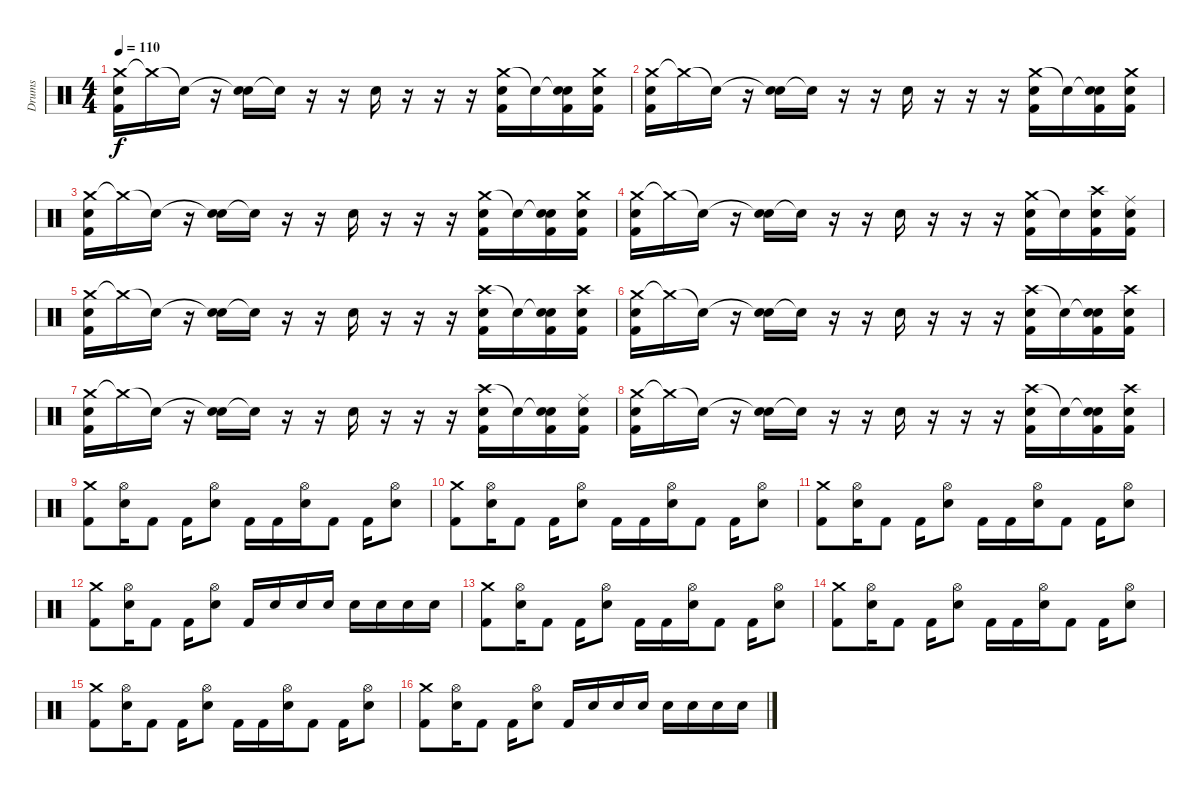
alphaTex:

\track ("Drums" "Drums") {instrument percussion}
\staff {score}
\articulation defaults
\ts (4 4)
\tempo 110
\clef neutral
\ks c
("Crash medium (hit)" "Snare (hit) 2" "Kick (hit) 2").16{dy f volume 13} "Crash medium (hit)"{t}.16 "Snare (hit)"{t}.16 r.16 ("Snare (hit)"{t} "Snare (hit) 2").16 "Snare (hit)"{t}.16 r.16 r.16 "Snare (hit) 2".16 r.16 r.16 r.16 ("Crash medium (hit)" "Snare (hit) 2" "Kick (hit) 2").16 "Snare (hit)"{t}.16 ("Snare (hit)"{t} "Snare (hit) 2" "Kick (hit) 2").16 ("Crash medium (hit)" "Snare (hit) 2" "Kick (hit) 2").16 |
("Crash medium (hit)" "Snare (hit) 2" "Kick (hit) 2").16 "Crash medium (hit)"{t}.16 "Snare (hit)"{t}.16 r.16 ("Snare (hit)"{t} "Snare (hit) 2").16 "Snare (hit)"{t}.16 r.16 r.16 "Snare (hit) 2".16 r.16 r.16 r.16 ("Crash medium (hit)" "Snare (hit) 2" "Kick (hit) 2").16 "Snare (hit)"{t}.16 ("Snare (hit)"{t} "Snare (hit) 2" "Kick (hit) 2").16 ("Crash medium (hit)" "Snare (hit) 2" "Kick (hit) 2").16 |
("Crash medium (hit)" "Snare (hit) 2" "Kick (hit) 2").16 "Crash medium (hit)"{t}.16 "Snare (hit)"{t}.16 r.16 ("Snare (hit)"{t} "Snare (hit) 2").16 "Snare (hit)"{t}.16 r.16 r.16 "Snare (hit) 2".16 r.16 r.16 r.16 ("Crash medium (hit)" "Snare (hit) 2" "Kick (hit) 2").16 "Snare (hit)"{t}.16 ("Snare (hit)"{t} "Snare (hit) 2" "Kick (hit) 2").16 ("Crash medium (hit)" "Snare (hit) 2" "Kick (hit) 2").16 |
("Crash medium (hit)" "Snare (hit) 2" "Kick (hit) 2").16 "Crash medium (hit)"{t}.16 "Snare (hit)"{t}.16 r.16 ("Snare (hit)"{t} "Snare (hit) 2").16 "Snare (hit)"{t}.16 r.16 r.16 "Snare (hit) 2".16 r.16 r.16 r.16 ("Crash medium (hit)" "Snare (hit) 2" "Kick (hit) 2").16 "Snare (hit)"{t}.16 ("Crash high (hit)" "Snare (hit) 2" "Kick (hit) 2").16 ("Ride (middle)" "Snare (hit) 2" "Kick (hit) 2").16 |
("Crash medium (hit)" "Snare (hit) 2" "Kick (hit) 2").16{volume 13} "Crash medium (hit)"{t}.16 "Snare (hit)"{t}.16 r.16 ("Snare (hit)"{t} "Snare (hit) 2").16 "Snare (hit)"{t}.16 r.16 r.16 "Snare (hit) 2".16 r.16 r.16 r.16 ("Crash high (hit)" "Snare (hit) 2" "Kick (hit) 2").16 "Snare (hit)"{t}.16 ("Snare (hit)"{t} "Snare (hit) 2" "Kick (hit) 2").16 ("Crash high (hit)" "Snare (hit) 2" "Kick (hit) 2").16 |
("Crash medium (hit)" "Snare (hit) 2" "Kick (hit) 2").16 "Crash medium (hit)"{t}.16 "Snare (hit)"{t}.16 r.16 ("Snare (hit)"{t} "Snare (hit) 2").16 "Snare (hit)"{t}.16 r.16 r.16 "Snare (hit) 2".16 r.16 r.16 r.16 ("Crash high (hit)" "Snare (hit) 2" "Kick (hit) 2").16 "Snare (hit)"{t}.16 ("Snare (hit)"{t} "Snare (hit) 2" "Kick (hit) 2").16 ("Crash high (hit)" "Snare (hit) 2" "Kick (hit) 2").16 |
("Crash medium (hit)" "Snare (hit) 2" "Kick (hit) 2").16 "Crash medium (hit)"{t}.16 "Snare (hit)"{t}.16 r.16 ("Snare (hit)"{t} "Snare (hit) 2").16 "Snare (hit)"{t}.16 r.16 r.16 "Snare (hit) 2".16 r.16 r.16 r.16 ("Crash high (hit)" "Snare (hit) 2" "Kick (hit) 2").16 "Snare (hit)"{t}.16 ("Snare (hit)"{t} "Snare (hit) 2" "Kick (hit) 2").16 ("Ride (middle)" "Snare (hit) 2" "Kick (hit) 2").16 |
("Crash medium (hit)" "Snare (hit) 2" "Kick (hit) 2").16 "Crash medium (hit)"{t}.16 "Snare (hit)"{t}.16 r.16 ("Snare (hit)"{t} "Snare (hit) 2").16 "Snare (hit)"{t}.16 r.16 r.16 "Snare (hit) 2".16 r.16 r.16 r.16 ("Crash high (hit)" "Snare (hit) 2" "Kick (hit) 2").16 "Snare (hit)"{t}.16 ("Snare (hit)"{t} "Snare (hit) 2" "Kick (hit) 2").16 ("Crash high (hit)" "Snare (hit) 2" "Kick (hit) 2").16 |
("Crash medium (hit)" "Kick (hit) 2").8 ("Hi-Hat (open)" "Electric Snare (hit)").16 "Kick (hit) 2".8 "Kick (hit) 2".16 ("Hi-Hat (open)" "Electric Snare (hit)").8 "Kick (hit) 2".16 "Kick (hit) 2".16 ("Hi-Hat (open)" "Electric Snare (hit)").16 "Kick (hit) 2".8 "Kick (hit) 2".16 ("Hi-Hat (open)" "Electric Snare (hit)").8 |
("Crash medium (hit)" "Kick (hit) 2").8 ("Hi-Hat (open)" "Electric Snare (hit)").16 "Kick (hit) 2".8 "Kick (hit) 2".16 ("Hi-Hat (open)" "Electric Snare (hit)").8 "Kick (hit) 2".16 "Kick (hit) 2".16 ("Hi-Hat (open)" "Electric Snare (hit)").16 "Kick (hit) 2".8 "Kick (hit) 2".16 ("Hi-Hat (open)" "Electric Snare (hit)").8 |
("Crash medium (hit)" "Kick (hit) 2").8 ("Hi-Hat (open)" "Electric Snare (hit)").16 "Kick (hit) 2".8 "Kick (hit) 2".16 ("Hi-Hat (open)" "Electric Snare (hit)").8 "Kick (hit) 2".16 "Kick (hit) 2".16 ("Hi-Hat (open)" "Electric Snare (hit)").16 "Kick (hit) 2".8 "Kick (hit) 2".16 ("Hi-Hat (open)" "Electric Snare (hit)").8 |
("Crash medium (hit)" "Kick (hit) 2").8 ("Hi-Hat (open)" "Electric Snare (hit)").16 "Kick (hit) 2".8 "Kick (hit) 2".16 ("Hi-Hat (open)" "Electric Snare (hit)").8 "Kick (hit) 2".16 "Electric Snare (hit)".16 "Electric Snare (hit)".16 "Electric Snare (hit)".16 "Electric Snare (hit)".16 "Electric Snare (hit)".16 "Electric Snare (hit)".16 "Electric Snare (hit)".16 |
("Crash medium (hit)" "Kick (hit) 2").8 ("Hi-Hat (open)" "Electric Snare (hit)").16 "Kick (hit) 2".8 "Kick (hit) 2".16 ("Hi-Hat (open)" "Electric Snare (hit)").8 "Kick (hit) 2".16 "Kick (hit) 2".16 ("Hi-Hat (open)" "Electric Snare (hit)").16 "Kick (hit) 2".8 "Kick (hit) 2".16 ("Hi-Hat (open)" "Electric Snare (hit)").8 |
("Crash medium (hit)" "Kick (hit) 2").8 ("Hi-Hat (open)" "Electric Snare (hit)").16 "Kick (hit) 2".8 "Kick (hit) 2".16 ("Hi-Hat (open)" "Electric Snare (hit)").8 "Kick (hit) 2".16 "Kick (hit) 2".16 ("Hi-Hat (open)" "Electric Snare (hit)").16 "Kick (hit) 2".8 "Kick (hit) 2".16 ("Hi-Hat (open)" "Electric Snare (hit)").8 |
("Crash medium (hit)" "Kick (hit) 2").8 ("Hi-Hat (open)" "Electric Snare (hit)").16 "Kick (hit) 2".8 "Kick (hit) 2".16 ("Hi-Hat (open)" "Electric Snare (hit)").8 "Kick (hit) 2".16 "Kick (hit) 2".16 ("Hi-Hat (open)" "Electric Snare (hit)").16 "Kick (hit) 2".8 "Kick (hit) 2".16 ("Hi-Hat (open)" "Electric Snare (hit)").8 |
("Crash medium (hit)" "Kick (hit) 2").8 ("Hi-Hat (open)" "Electric Snare (hit)").16 "Kick (hit) 2".8 "Kick (hit) 2".16 ("Hi-Hat (open)" "Electric Snare (hit)").8 "Kick (hit) 2".16 "Electric Snare (hit)".16 "Electric Snare (hit)".16 "Electric Snare (hit)".16 "Electric Snare (hit)".16 "Electric Snare (hit)".16 "Electric Snare (hit)".16 "Electric Snare (hit)".16
